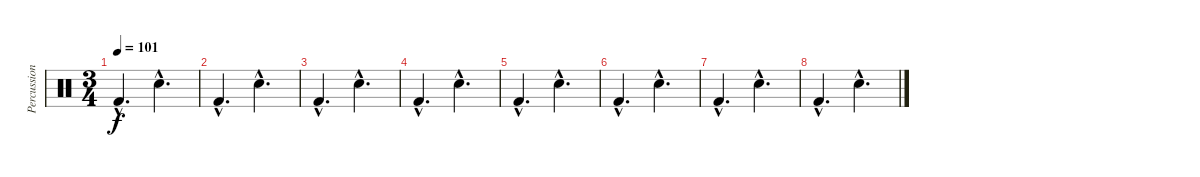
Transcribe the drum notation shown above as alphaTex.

\track ("Percussions" "Percussion") {instrument percussion}
\staff {score}
\articulation defaults
\ts (3 4)
\tempo 101
\clef neutral
\ks c "Kick (hit) 2"{hac}.4{d dy f} "Electric Snare (hit)"{hac}.4{d}
|
"Kick (hit) 2"{hac}.4{d} "Electric Snare (hit)"{hac}.4{d} |
"Kick (hit) 2"{hac}.4{d} "Electric Snare (hit)"{hac}.4{d} |
"Kick (hit) 2"{hac}.4{d} "Electric Snare (hit)"{hac}.4{d} |
"Kick (hit) 2"{hac}.4{d} "Electric Snare (hit)"{hac}.4{d} |
"Kick (hit) 2"{hac}.4{d} "Electric Snare (hit)"{hac}.4{d} |
"Kick (hit) 2"{hac}.4{d} "Electric Snare (hit)"{hac}.4{d} |
"Kick (hit) 2"{hac}.4{d} "Electric Snare (hit)"{hac}.4{d}
